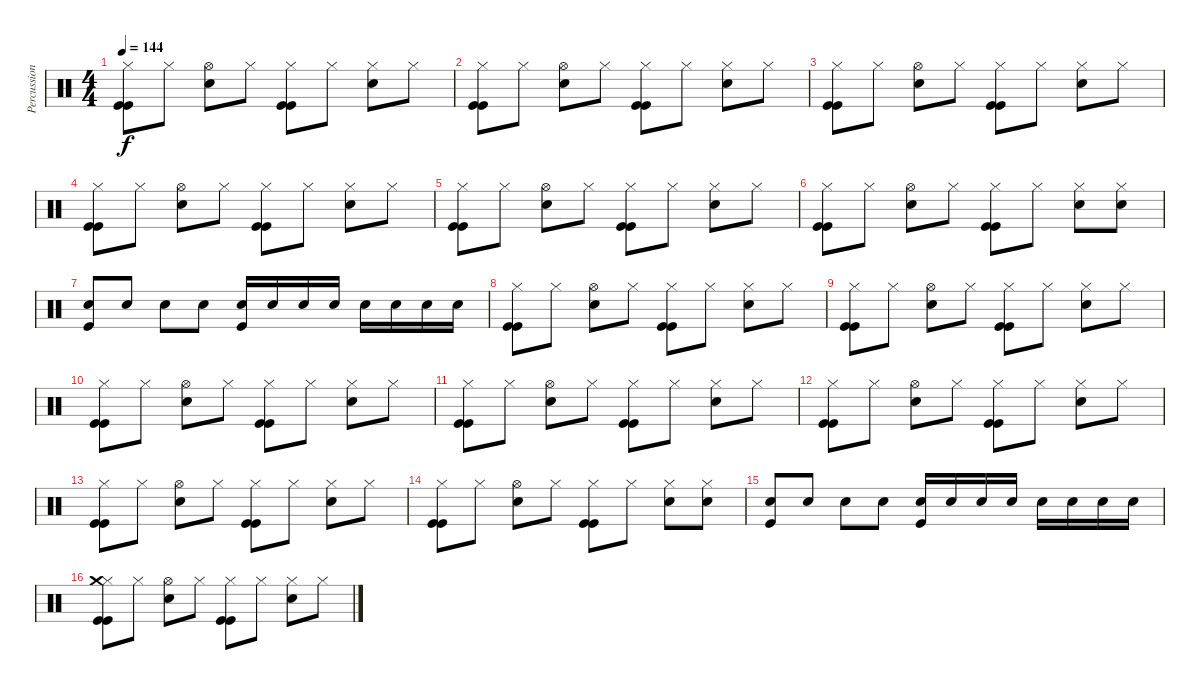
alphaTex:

\track ("Percussion" "Percussion") {instrument percussion}
\staff {score}
\articulation defaults
\ts (4 4)
\tempo 144
\clef neutral
\ks c
("Hi-Hat (closed)" "Kick (hit)" "Kick (hit)").8{dy f} "Hi-Hat (closed)".8 ("Hi-Hat (open)" "Snare (hit) 2").8 "Hi-Hat (closed)".8 ("Hi-Hat (closed)" "Kick (hit)" "Kick (hit)").8 "Hi-Hat (closed)".8 ("Hi-Hat (closed)" "Snare (hit) 2").8 "Hi-Hat (closed)".8 |
("Hi-Hat (closed)" "Kick (hit)" "Kick (hit)").8 "Hi-Hat (closed)".8 ("Hi-Hat (open)" "Snare (hit) 2").8 "Hi-Hat (closed)".8 ("Hi-Hat (closed)" "Kick (hit)" "Kick (hit)").8 "Hi-Hat (closed)".8 ("Hi-Hat (closed)" "Snare (hit) 2").8 "Hi-Hat (closed)".8 |
("Hi-Hat (closed)" "Kick (hit)" "Kick (hit)").8 "Hi-Hat (closed)".8 ("Hi-Hat (open)" "Snare (hit) 2").8 "Hi-Hat (closed)".8 ("Hi-Hat (closed)" "Kick (hit)" "Kick (hit)").8 "Hi-Hat (closed)".8 ("Hi-Hat (closed)" "Snare (hit) 2").8 "Hi-Hat (closed)".8 |
("Hi-Hat (closed)" "Kick (hit)" "Kick (hit)").8 "Hi-Hat (closed)".8 ("Hi-Hat (open)" "Snare (hit) 2").8 "Hi-Hat (closed)".8 ("Hi-Hat (closed)" "Kick (hit)" "Kick (hit)").8 "Hi-Hat (closed)".8 ("Hi-Hat (closed)" "Snare (hit) 2").8 "Hi-Hat (closed)".8 |
("Hi-Hat (closed)" "Kick (hit)" "Kick (hit)").8 "Hi-Hat (closed)".8 ("Hi-Hat (open)" "Snare (hit) 2").8 "Hi-Hat (closed)".8 ("Hi-Hat (closed)" "Kick (hit)" "Kick (hit)").8 "Hi-Hat (closed)".8 ("Hi-Hat (closed)" "Snare (hit) 2").8 "Hi-Hat (closed)".8 |
("Hi-Hat (closed)" "Kick (hit)" "Kick (hit)").8 "Hi-Hat (closed)".8 ("Hi-Hat (open)" "Snare (hit) 2").8 "Hi-Hat (closed)".8 ("Hi-Hat (closed)" "Kick (hit)" "Kick (hit)").8 "Hi-Hat (closed)".8 ("Hi-Hat (closed)" "Snare (hit) 2").8 ("Hi-Hat (closed)" "Snare (hit) 2").8 |
("Snare (hit) 2" "Kick (hit)").8 "Snare (hit) 2".8 "Snare (hit) 2".8 "Snare (hit) 2".8 ("Snare (hit) 2" "Kick (hit)").16 "Snare (hit) 2".16 "Snare (hit) 2".16 "Snare (hit) 2".16 "Snare (hit) 2".16 "Snare (hit) 2".16 "Snare (hit) 2".16 "Snare (hit) 2".16 |
("Hi-Hat (closed)" "Kick (hit)" "Kick (hit)").8 "Hi-Hat (closed)".8 ("Hi-Hat (open)" "Snare (hit) 2").8 "Hi-Hat (closed)".8 ("Hi-Hat (closed)" "Kick (hit)" "Kick (hit)").8 "Hi-Hat (closed)".8 ("Hi-Hat (closed)" "Snare (hit) 2").8 "Hi-Hat (closed)".8 |
("Hi-Hat (closed)" "Kick (hit)" "Kick (hit)").8 "Hi-Hat (closed)".8 ("Hi-Hat (open)" "Snare (hit) 2").8 "Hi-Hat (closed)".8 ("Hi-Hat (closed)" "Kick (hit)" "Kick (hit)").8 "Hi-Hat (closed)".8 ("Hi-Hat (closed)" "Snare (hit) 2").8 "Hi-Hat (closed)".8 |
("Hi-Hat (closed)" "Kick (hit)" "Kick (hit)").8 "Hi-Hat (closed)".8 ("Hi-Hat (open)" "Snare (hit) 2").8 "Hi-Hat (closed)".8 ("Hi-Hat (closed)" "Kick (hit)" "Kick (hit)").8 "Hi-Hat (closed)".8 ("Hi-Hat (closed)" "Snare (hit) 2").8 "Hi-Hat (closed)".8 |
("Hi-Hat (closed)" "Kick (hit)" "Kick (hit)").8 "Hi-Hat (closed)".8 ("Hi-Hat (open)" "Snare (hit) 2").8 "Hi-Hat (closed)".8 ("Hi-Hat (closed)" "Kick (hit)" "Kick (hit)").8 "Hi-Hat (closed)".8 ("Hi-Hat (closed)" "Snare (hit) 2").8 "Hi-Hat (closed)".8 |
("Hi-Hat (closed)" "Kick (hit)" "Kick (hit)").8 "Hi-Hat (closed)".8 ("Hi-Hat (open)" "Snare (hit) 2").8 "Hi-Hat (closed)".8 ("Hi-Hat (closed)" "Kick (hit)" "Kick (hit)").8 "Hi-Hat (closed)".8 ("Hi-Hat (closed)" "Snare (hit) 2").8 "Hi-Hat (closed)".8 |
("Hi-Hat (closed)" "Kick (hit)" "Kick (hit)").8 "Hi-Hat (closed)".8 ("Hi-Hat (open)" "Snare (hit) 2").8 "Hi-Hat (closed)".8 ("Hi-Hat (closed)" "Kick (hit)" "Kick (hit)").8 "Hi-Hat (closed)".8 ("Hi-Hat (closed)" "Snare (hit) 2").8 "Hi-Hat (closed)".8 |
("Hi-Hat (closed)" "Kick (hit)" "Kick (hit)").8 "Hi-Hat (closed)".8 ("Hi-Hat (open)" "Snare (hit) 2").8 "Hi-Hat (closed)".8 ("Hi-Hat (closed)" "Kick (hit)" "Kick (hit)").8 "Hi-Hat (closed)".8 ("Hi-Hat (closed)" "Snare (hit) 2").8 ("Hi-Hat (closed)" "Snare (hit) 2").8 |
("Snare (hit) 2" "Kick (hit)").8 "Snare (hit) 2".8 "Snare (hit) 2".8 "Snare (hit) 2".8 ("Snare (hit) 2" "Kick (hit)").16 "Snare (hit) 2".16 "Snare (hit) 2".16 "Snare (hit) 2".16 "Snare (hit) 2".16 "Snare (hit) 2".16 "Snare (hit) 2".16 "Snare (hit) 2".16 |
("Hi-Hat (closed)" "Kick (hit)" "Kick (hit)" "Crash medium (hit)").8 "Hi-Hat (closed)".8 ("Hi-Hat (open)" "Snare (hit) 2").8 "Hi-Hat (closed)".8 ("Hi-Hat (closed)" "Kick (hit)" "Kick (hit)").8 "Hi-Hat (closed)".8 ("Hi-Hat (closed)" "Snare (hit) 2").8 "Hi-Hat (closed)".8
